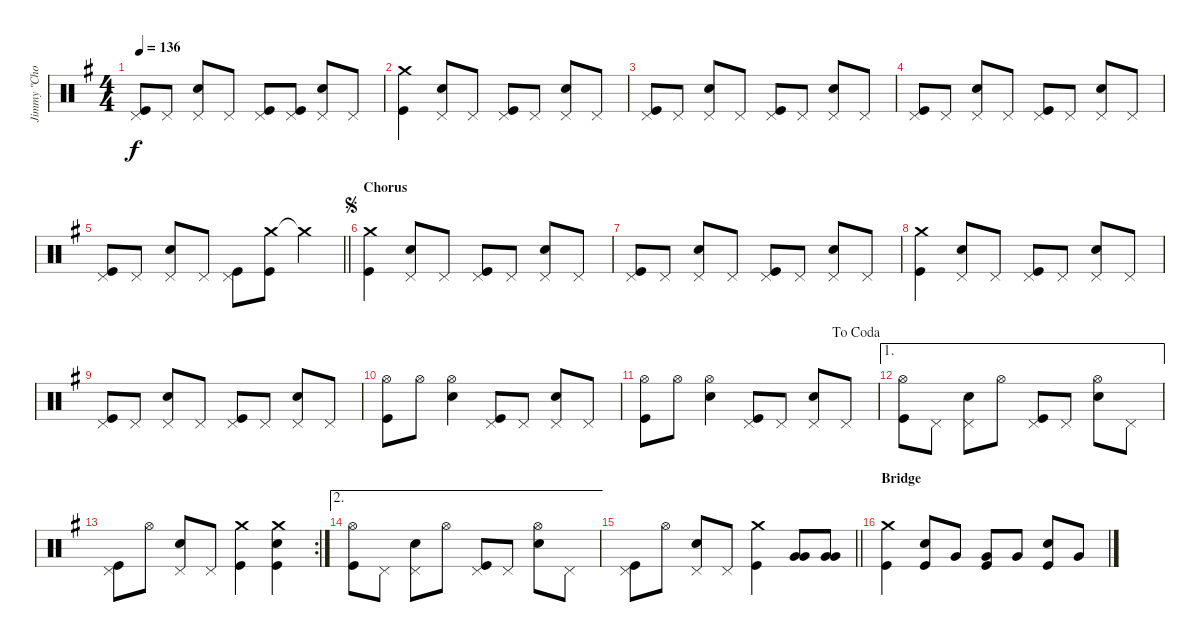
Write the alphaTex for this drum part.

\track ("Jimmy \"Chocolate\" Chalfant" "Jimmy \"Cho") {instrument percussion}
\staff {score}
\articulation defaults
\ts (4 4)
\tempo 136
\clef neutral
\ks g
("Pedal Hi-Hat (hit)" "Kick (hit)").8{dy f} "Pedal Hi-Hat (hit)".8 ("Pedal Hi-Hat (hit)" "Snare (hit) 2").8 "Pedal Hi-Hat (hit)".8 ("Pedal Hi-Hat (hit)" "Kick (hit)").8 ("Pedal Hi-Hat (hit)" "Kick (hit)").8 ("Pedal Hi-Hat (hit)" "Snare (hit) 2").8 "Pedal Hi-Hat (hit)".8 |
("Crash medium (hit)" "Kick (hit)").4 ("Pedal Hi-Hat (hit)" "Snare (hit) 2").8 "Pedal Hi-Hat (hit)".8 ("Pedal Hi-Hat (hit)" "Kick (hit)").8 "Pedal Hi-Hat (hit)".8 ("Pedal Hi-Hat (hit)" "Snare (hit) 2").8 "Pedal Hi-Hat (hit)".8 |
("Pedal Hi-Hat (hit)" "Kick (hit)").8 "Pedal Hi-Hat (hit)".8 ("Pedal Hi-Hat (hit)" "Snare (hit) 2").8 "Pedal Hi-Hat (hit)".8 ("Pedal Hi-Hat (hit)" "Kick (hit)").8 "Pedal Hi-Hat (hit)".8 ("Pedal Hi-Hat (hit)" "Snare (hit) 2").8 "Pedal Hi-Hat (hit)".8 |
("Pedal Hi-Hat (hit)" "Kick (hit)").8 "Pedal Hi-Hat (hit)".8 ("Pedal Hi-Hat (hit)" "Snare (hit) 2").8 "Pedal Hi-Hat (hit)".8 ("Pedal Hi-Hat (hit)" "Kick (hit)").8 "Pedal Hi-Hat (hit)".8 ("Pedal Hi-Hat (hit)" "Snare (hit) 2").8 "Pedal Hi-Hat (hit)".8 |
\barLineRight lightlight
("Pedal Hi-Hat (hit)" "Kick (hit)").8 "Pedal Hi-Hat (hit)".8 ("Pedal Hi-Hat (hit)" "Snare (hit) 2").8 "Pedal Hi-Hat (hit)".8 ("Pedal Hi-Hat (hit)" "Kick (hit)").8 ("Crash medium (hit)" "Kick (hit)").8 "Crash medium (hit)"{t}.4 |
\section ("" "Chorus")
\jump segno
("Crash medium (hit)" "Kick (hit)").4 ("Pedal Hi-Hat (hit)" "Snare (hit) 2").8 "Pedal Hi-Hat (hit)".8 ("Pedal Hi-Hat (hit)" "Kick (hit)").8 "Pedal Hi-Hat (hit)".8 ("Pedal Hi-Hat (hit)" "Snare (hit) 2").8 "Pedal Hi-Hat (hit)".8 |
("Pedal Hi-Hat (hit)" "Kick (hit)").8 "Pedal Hi-Hat (hit)".8 ("Pedal Hi-Hat (hit)" "Snare (hit) 2").8 "Pedal Hi-Hat (hit)".8 ("Pedal Hi-Hat (hit)" "Kick (hit)").8 "Pedal Hi-Hat (hit)".8 ("Pedal Hi-Hat (hit)" "Snare (hit) 2").8 "Pedal Hi-Hat (hit)".8 |
("Crash medium (hit)" "Kick (hit)").4 ("Pedal Hi-Hat (hit)" "Snare (hit) 2").8 "Pedal Hi-Hat (hit)".8 ("Pedal Hi-Hat (hit)" "Kick (hit)").8 "Pedal Hi-Hat (hit)".8 ("Pedal Hi-Hat (hit)" "Snare (hit) 2").8 "Pedal Hi-Hat (hit)".8 |
("Pedal Hi-Hat (hit)" "Kick (hit)").8 "Pedal Hi-Hat (hit)".8 ("Pedal Hi-Hat (hit)" "Snare (hit) 2").8 "Pedal Hi-Hat (hit)".8 ("Pedal Hi-Hat (hit)" "Kick (hit)").8 "Pedal Hi-Hat (hit)".8 ("Pedal Hi-Hat (hit)" "Snare (hit) 2").8 "Pedal Hi-Hat (hit)".8 |
("Hi-Hat (open)" "Kick (hit)").8 "Hi-Hat (open)".8 ("Hi-Hat (open)" "Snare (hit) 2").4 ("Pedal Hi-Hat (hit)" "Kick (hit)").8 "Pedal Hi-Hat (hit)".8 ("Pedal Hi-Hat (hit)" "Snare (hit) 2").8 "Pedal Hi-Hat (hit)".8 |
\jump dacoda
("Hi-Hat (open)" "Kick (hit)").8 "Hi-Hat (open)".8 ("Hi-Hat (open)" "Snare (hit) 2").4 ("Pedal Hi-Hat (hit)" "Kick (hit)").8 "Pedal Hi-Hat (hit)".8 ("Pedal Hi-Hat (hit)" "Snare (hit) 2").8 "Pedal Hi-Hat (hit)".8 |
\ae 1
("Hi-Hat (open)" "Kick (hit)").8 "Pedal Hi-Hat (hit)".8 ("Pedal Hi-Hat (hit)" "Snare (hit) 2").8 "Hi-Hat (open)".8 ("Pedal Hi-Hat (hit)" "Kick (hit)").8 "Pedal Hi-Hat (hit)".8 ("Hi-Hat (open)" "Snare (hit) 2").8 "Pedal Hi-Hat (hit)".8 |
\rc 2
("Pedal Hi-Hat (hit)" "Kick (hit)").8 "Hi-Hat (open)".8 ("Pedal Hi-Hat (hit)" "Snare (hit) 2").8 "Pedal Hi-Hat (hit)".8 ("Crash medium (hit)" "Kick (hit)").4 ("Crash medium (hit)" "Snare (hit) 2" "Kick (hit)").4 |
\ae 2
("Hi-Hat (open)" "Kick (hit)").8 "Pedal Hi-Hat (hit)".8 ("Pedal Hi-Hat (hit)" "Snare (hit) 2").8 "Hi-Hat (open)".8 ("Pedal Hi-Hat (hit)" "Kick (hit)").8 "Pedal Hi-Hat (hit)".8 ("Hi-Hat (open)" "Snare (hit) 2").8 "Pedal Hi-Hat (hit)".8 |
\barLineRight lightlight
("Pedal Hi-Hat (hit)" "Kick (hit)").8 "Hi-Hat (open)".8 ("Pedal Hi-Hat (hit)" "Snare (hit) 2").8 "Pedal Hi-Hat (hit)".8 ("Crash medium (hit)" "Kick (hit)").4 ("Very Low Tom (hit)" "Very Low Tom (hit)").8 ("Very Low Tom (hit)" "Very Low Tom (hit)").8 |
\section ("" "Bridge")
("Crash medium (hit)" "Kick (hit)").4 ("Snare (hit) 2" "Kick (hit)").8 "Very Low Tom (hit)".8 ("Very Low Tom (hit)" "Kick (hit)").8 "Very Low Tom (hit)".8 ("Snare (hit) 2" "Kick (hit)").8 "Very Low Tom (hit)".8
